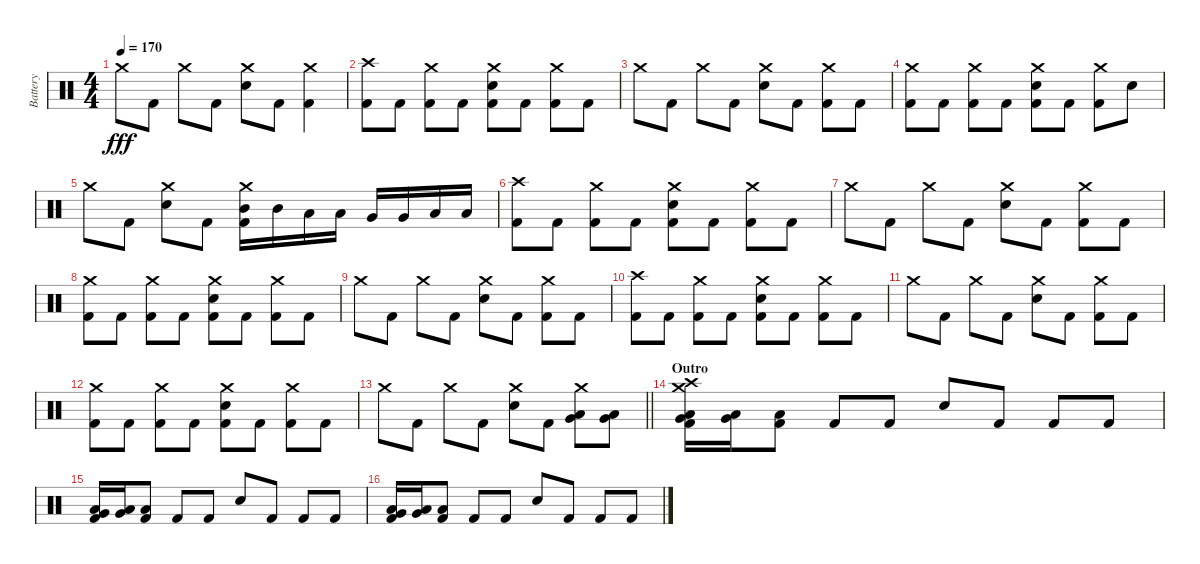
\track ("Battery" "Battery") {instrument percussion}
\staff {score}
\articulation defaults
\ts (4 4)
\tempo 170
\clef neutral
\ks c "Crash medium (hit)".8{dy fff} "Kick (hit) 2".8 "Crash medium (hit)".8 "Kick (hit) 2".8
("Crash medium (hit)" "Electric Snare (hit)").8 "Kick (hit) 2".8 ("Crash medium (hit)" "Kick (hit) 2").4 |
("Crash high (hit)" "Kick (hit) 2").8 "Kick (hit) 2".8 ("Crash medium (hit)" "Kick (hit) 2").8 "Kick (hit) 2".8 ("Crash medium (hit)" "Electric Snare (hit)" "Kick (hit) 2").8 "Kick (hit) 2".8 ("Crash medium (hit)" "Kick (hit) 2").8 "Kick (hit) 2".8 |
"Crash medium (hit)".8 "Kick (hit) 2".8 "Crash medium (hit)".8 "Kick (hit) 2".8 ("Crash medium (hit)" "Electric Snare (hit)").8 "Kick (hit) 2".8 ("Crash medium (hit)" "Kick (hit) 2").8 "Kick (hit) 2".8 |
("Crash medium (hit)" "Kick (hit) 2").8 "Kick (hit) 2".8 ("Crash medium (hit)" "Kick (hit) 2").8 "Kick (hit) 2".8 ("Crash medium (hit)" "Electric Snare (hit)" "Kick (hit) 2").8 "Kick (hit) 2".8 ("Crash medium (hit)" "Kick (hit) 2").8 "Electric Snare (hit)".8 |
"Crash medium (hit)".8 "Kick (hit) 2".8 ("Crash medium (hit)" "Electric Snare (hit)").8 "Kick (hit) 2".8 ("Crash medium (hit)" "Mid Tom (hit)" "Kick (hit) 2").16 "Mid Tom (hit)".16 "Low Tom (hit)".16 "Low Tom (hit)".16 "Very Low Tom (hit)".16 "Very Low Tom (hit)".16 "Low Floor Tom (hit)".16 "Low Floor Tom (hit)".16 |
("Crash high (hit)" "Kick (hit) 2").8 "Kick (hit) 2".8 ("Crash medium (hit)" "Kick (hit) 2").8 "Kick (hit) 2".8 ("Crash medium (hit)" "Electric Snare (hit)" "Kick (hit) 2").8 "Kick (hit) 2".8 ("Crash medium (hit)" "Kick (hit) 2").8 "Kick (hit) 2".8 |
"Crash medium (hit)".8 "Kick (hit) 2".8 "Crash medium (hit)".8 "Kick (hit) 2".8 ("Crash medium (hit)" "Electric Snare (hit)").8 "Kick (hit) 2".8 ("Crash medium (hit)" "Kick (hit) 2").8 "Kick (hit) 2".8 |
("Crash medium (hit)" "Kick (hit) 2").8 "Kick (hit) 2".8 ("Crash medium (hit)" "Kick (hit) 2").8 "Kick (hit) 2".8 ("Crash medium (hit)" "Electric Snare (hit)" "Kick (hit) 2").8 "Kick (hit) 2".8 ("Crash medium (hit)" "Kick (hit) 2").8 "Kick (hit) 2".8 |
"Crash medium (hit)".8 "Kick (hit) 2".8 "Crash medium (hit)".8 "Kick (hit) 2".8 ("Crash medium (hit)" "Electric Snare (hit)").8 "Kick (hit) 2".8 ("Crash medium (hit)" "Kick (hit) 2").8 "Kick (hit) 2".8 |
("Crash high (hit)" "Kick (hit) 2").8 "Kick (hit) 2".8 ("Crash medium (hit)" "Kick (hit) 2").8 "Kick (hit) 2".8 ("Crash medium (hit)" "Electric Snare (hit)" "Kick (hit) 2").8 "Kick (hit) 2".8 ("Crash medium (hit)" "Kick (hit) 2").8 "Kick (hit) 2".8 |
"Crash medium (hit)".8 "Kick (hit) 2".8 "Crash medium (hit)".8 "Kick (hit) 2".8 ("Crash medium (hit)" "Electric Snare (hit)").8 "Kick (hit) 2".8 ("Crash medium (hit)" "Kick (hit) 2").8 "Kick (hit) 2".8 |
("Crash medium (hit)" "Kick (hit) 2").8 "Kick (hit) 2".8 ("Crash medium (hit)" "Kick (hit) 2").8 "Kick (hit) 2".8 ("Crash medium (hit)" "Electric Snare (hit)" "Kick (hit) 2").8 "Kick (hit) 2".8 ("Crash medium (hit)" "Kick (hit) 2").8 "Kick (hit) 2".8 |
\barLineRight lightlight "Crash medium (hit)".8 "Kick (hit) 2".8 "Crash medium (hit)".8 "Kick (hit) 2".8
("Crash medium (hit)" "Electric Snare (hit)").8 "Kick (hit) 2".8 ("Crash medium (hit)" "Low Tom (hit)" "Very Low Tom (hit)").8 ("Very Low Tom (hit)" "Low Floor Tom (hit)").8 |
\section ("" "Outro")
("Crash high (hit)" "Crash medium (hit)" "Low Tom (hit)" "Very Low Tom (hit)" "Kick (hit) 2").16 ("Very Low Tom (hit)" "Low Floor Tom (hit)").16 ("Low Floor Tom (hit)" "Kick (hit) 2").8 "Kick (hit) 2".8 "Kick (hit) 2".8 "Snare (hit) 2".8 "Kick (hit) 2".8 "Kick (hit) 2".8 "Kick (hit) 2".8 |
("Low Tom (hit)" "Very Low Tom (hit)" "Kick (hit) 2").16 ("Very Low Tom (hit)" "Low Floor Tom (hit)").16 ("Low Floor Tom (hit)" "Kick (hit) 2").8 "Kick (hit) 2".8 "Kick (hit) 2".8 "Snare (hit) 2".8 "Kick (hit) 2".8 "Kick (hit) 2".8 "Kick (hit) 2".8 |
("Low Tom (hit)" "Very Low Tom (hit)" "Kick (hit) 2").16 ("Very Low Tom (hit)" "Low Floor Tom (hit)").16 ("Low Floor Tom (hit)" "Kick (hit) 2").8 "Kick (hit) 2".8 "Kick (hit) 2".8 "Snare (hit) 2".8 "Kick (hit) 2".8 "Kick (hit) 2".8 "Kick (hit) 2".8
